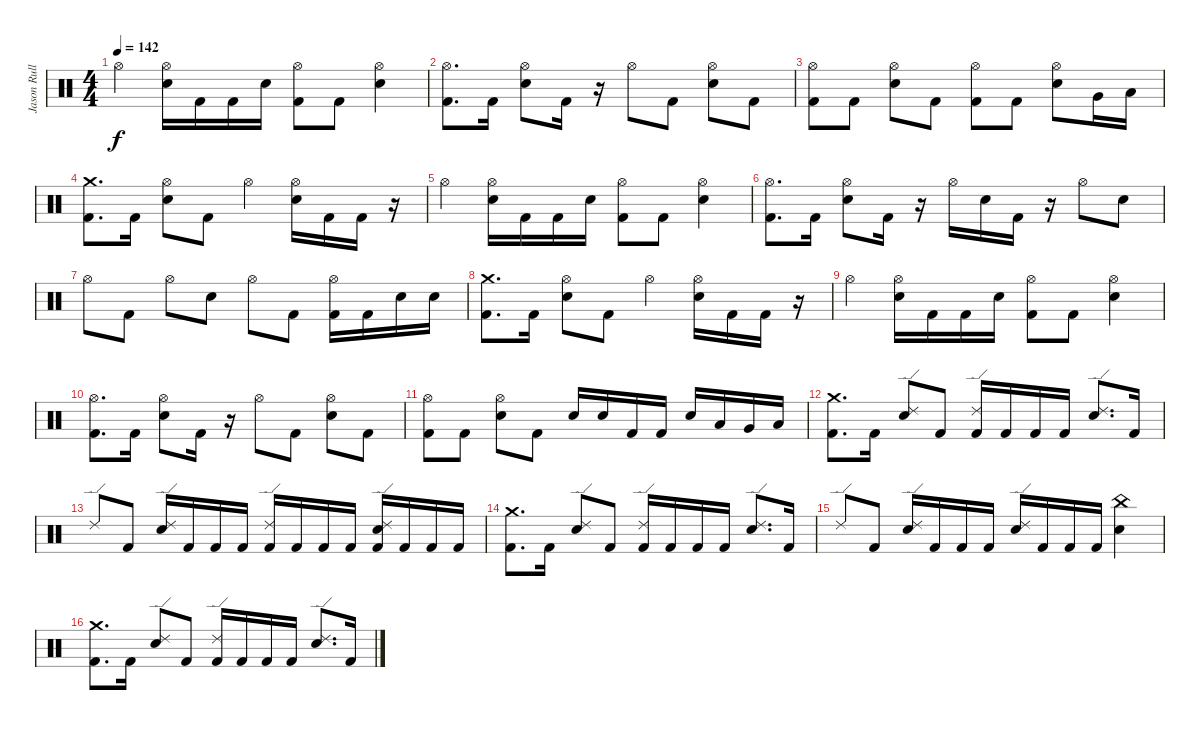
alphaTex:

\track ("Jason Rullo (drums)" "Jason Rull") {solo instrument percussion}
\staff {score}
\articulation defaults
\ts (4 4)
\tempo 142
\clef neutral
\ks c "Hi-Hat (open)".4{dy f}
("Hi-Hat (open)" "Electric Snare (hit)").16 "Kick (hit) 2".16 "Kick (hit) 2".16 "Electric Snare (hit)".16 ("Hi-Hat (open)" "Kick (hit) 2").8 "Kick (hit) 2".8 ("Hi-Hat (open)" "Electric Snare (hit)").4 |
("Hi-Hat (open)" "Kick (hit) 2").8{d} "Kick (hit) 2".16 ("Hi-Hat (open)" "Electric Snare (hit)").8 "Kick (hit) 2".16 r.16 "Hi-Hat (open)".8 "Kick (hit) 2".8 ("Electric Snare (hit)" "Hi-Hat (open)").8 "Kick (hit) 2".8 |
("Hi-Hat (open)" "Kick (hit) 2").8 "Kick (hit) 2".8 ("Hi-Hat (open)" "Electric Snare (hit)").8 "Kick (hit) 2".8 ("Hi-Hat (open)" "Kick (hit) 2").8 "Kick (hit) 2".8 ("Hi-Hat (open)" "Electric Snare (hit)").8 "Very Low Tom (hit)".16 "Low Floor Tom (hit)".16 |
("Crash medium (hit)" "Kick (hit) 2").8{d} "Kick (hit) 2".16 ("Hi-Hat (open)" "Electric Snare (hit)").8 "Kick (hit) 2".8 "Hi-Hat (open)".4 ("Hi-Hat (open)" "Electric Snare (hit)").16 "Kick (hit) 2".16 "Kick (hit) 2".16 r.16 |
"Hi-Hat (open)".4 ("Hi-Hat (open)" "Electric Snare (hit)").16 "Kick (hit) 2".16 "Kick (hit) 2".16 "Electric Snare (hit)".16 ("Hi-Hat (open)" "Kick (hit) 2").8 "Kick (hit) 2".8 ("Hi-Hat (open)" "Electric Snare (hit)").4 |
("Hi-Hat (open)" "Kick (hit) 2").8{d} "Kick (hit) 2".16 ("Hi-Hat (open)" "Electric Snare (hit)").8 "Kick (hit) 2".16 r.16 "Hi-Hat (open)".16 "Electric Snare (hit)".16 "Kick (hit) 2".16 r.16 "Hi-Hat (open)".8 "Electric Snare (hit)".8 |
"Hi-Hat (open)".8 "Kick (hit) 2".8 "Hi-Hat (open)".8 "Electric Snare (hit)".8 "Hi-Hat (open)".8 "Kick (hit) 2".8 ("Hi-Hat (open)" "Kick (hit) 2").16 "Kick (hit) 2".16 "Electric Snare (hit)".16 "Electric Snare (hit)".16 |
("Crash medium (hit)" "Kick (hit) 2").8{d} "Kick (hit) 2".16 ("Hi-Hat (open)" "Electric Snare (hit)").8 "Kick (hit) 2".8 "Hi-Hat (open)".4 ("Hi-Hat (open)" "Electric Snare (hit)").16 "Kick (hit) 2".16 "Kick (hit) 2".16 r.16 |
"Hi-Hat (open)".4 ("Hi-Hat (open)" "Electric Snare (hit)").16 "Kick (hit) 2".16 "Kick (hit) 2".16 "Electric Snare (hit)".16 ("Hi-Hat (open)" "Kick (hit) 2").8 "Kick (hit) 2".8 ("Hi-Hat (open)" "Electric Snare (hit)").4 |
("Hi-Hat (open)" "Kick (hit) 2").8{d} "Kick (hit) 2".16 ("Hi-Hat (open)" "Electric Snare (hit)").8 "Kick (hit) 2".16 r.16 "Hi-Hat (open)".8 "Kick (hit) 2".8 ("Electric Snare (hit)" "Hi-Hat (open)").8 "Kick (hit) 2".8 |
("Hi-Hat (open)" "Kick (hit) 2").8 "Kick (hit) 2".8 ("Hi-Hat (open)" "Electric Snare (hit)").8 "Kick (hit) 2".8 "Electric Snare (hit)".16 "Electric Snare (hit)".16 "Kick (hit) 2".16 "Kick (hit) 2".16 "Electric Snare (hit)".16 "Low Tom (hit)".16 "Very Low Tom (hit)".16 "Low Floor Tom (hit)".16 |
("Crash medium (hit)" "Kick (hit) 2").8{d volume 16 balance 8} "Kick (hit) 2".16 ("Ride (edge) 2" "Electric Snare (hit)").8 "Kick (hit) 2".8 ("Ride (edge) 2" "Kick (hit) 2").16 "Kick (hit) 2".16 "Kick (hit) 2".16 "Kick (hit) 2".16 ("Ride (edge) 2" "Electric Snare (hit)").8{d} "Kick (hit) 2".16 |
"Ride (edge) 2".8 "Kick (hit) 2".8 ("Electric Snare (hit)" "Ride (edge) 2").16 "Kick (hit) 2".16 "Kick (hit) 2".16 "Kick (hit) 2".16 ("Kick (hit) 2" "Ride (edge) 2").16 "Kick (hit) 2".16 "Kick (hit) 2".16 "Kick (hit) 2".16 ("Electric Snare (hit)" "Kick (hit) 2" "Ride (edge) 2").16 "Kick (hit) 2".16 "Kick (hit) 2".16 "Kick (hit) 2".16 |
("Crash medium (hit)" "Kick (hit) 2").8{d} "Kick (hit) 2".16 ("Ride (edge) 2" "Electric Snare (hit)").8 "Kick (hit) 2".8 ("Ride (edge) 2" "Kick (hit) 2").16 "Kick (hit) 2".16 "Kick (hit) 2".16 "Kick (hit) 2".16 ("Ride (edge) 2" "Electric Snare (hit)").8{d} "Kick (hit) 2".16 |
"Ride (edge) 2".8 "Kick (hit) 2".8 ("Electric Snare (hit)" "Ride (edge) 2").16 "Kick (hit) 2".16 "Kick (hit) 2".16 "Kick (hit) 2".16 ("Electric Snare (hit)" "Ride (edge) 2").16 "Kick (hit) 2".16 "Kick (hit) 2".16 "Kick (hit) 2".16 ("China (hit)" "Electric Snare (hit)").4 |
("Crash medium (hit)" "Kick (hit) 2").8{d} "Kick (hit) 2".16 ("Ride (edge) 2" "Electric Snare (hit)").8 "Kick (hit) 2".8 ("Ride (edge) 2" "Kick (hit) 2").16 "Kick (hit) 2".16 "Kick (hit) 2".16 "Kick (hit) 2".16 ("Ride (edge) 2" "Electric Snare (hit)").8{d} "Kick (hit) 2".16
